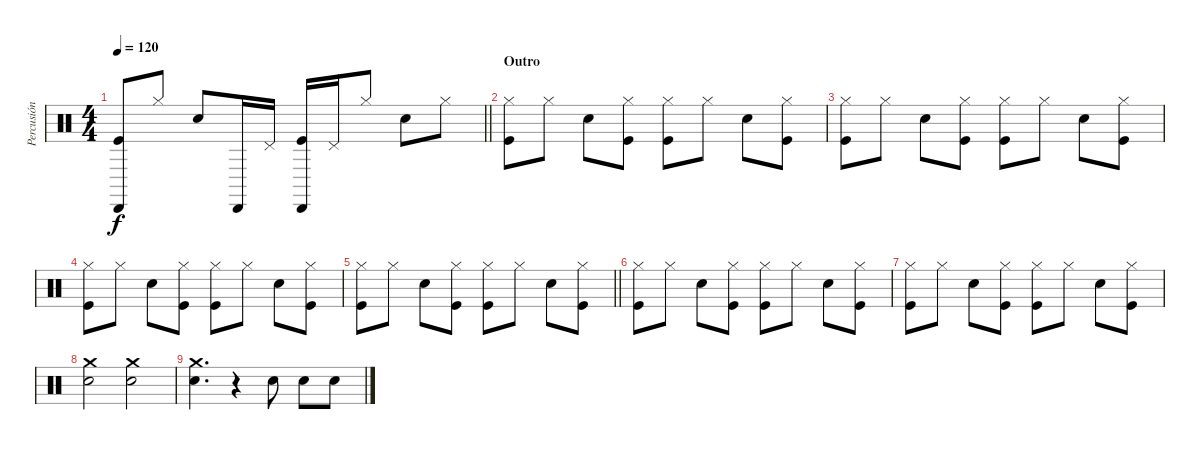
\track ("Percusión" "Percusión") {instrument percussion}
\staff {score}
\articulation defaults
\ts (4 4)
\tempo 120
\clef neutral
\barLineRight lightlight
\ks c
("Kick (hit)" "Cabasa (hit)").8{dy f} "Hi-Hat (closed)".8 "Electric Snare (hit)".8 "Cabasa (hit)".16 "Pedal Hi-Hat (hit)".16 ("Kick (hit)" "Cabasa (hit)").16 "Pedal Hi-Hat (hit)".16 "Hi-Hat (closed)".8 "Electric Snare (hit)".8 "Hi-Hat (closed)".8 |
\section ("" "Outro")
("Kick (hit)" "Hi-Hat (closed)").8 "Hi-Hat (closed)".8 "Electric Snare (hit)".8 ("Kick (hit)" "Hi-Hat (closed)").8 ("Kick (hit)" "Hi-Hat (closed)").8 "Hi-Hat (closed)".8 "Electric Snare (hit)".8 ("Kick (hit)" "Hi-Hat (closed)").8 |
("Kick (hit)" "Hi-Hat (closed)").8 "Hi-Hat (closed)".8 "Electric Snare (hit)".8 ("Kick (hit)" "Hi-Hat (closed)").8 ("Kick (hit)" "Hi-Hat (closed)").8 "Hi-Hat (closed)".8 "Electric Snare (hit)".8 ("Kick (hit)" "Hi-Hat (closed)").8 |
("Kick (hit)" "Hi-Hat (closed)").8 "Hi-Hat (closed)".8 "Electric Snare (hit)".8 ("Kick (hit)" "Hi-Hat (closed)").8 ("Kick (hit)" "Hi-Hat (closed)").8 "Hi-Hat (closed)".8 "Electric Snare (hit)".8 ("Kick (hit)" "Hi-Hat (closed)").8 |
\barLineRight lightlight
("Kick (hit)" "Hi-Hat (closed)").8 "Hi-Hat (closed)".8 "Electric Snare (hit)".8 ("Kick (hit)" "Hi-Hat (closed)").8 ("Kick (hit)" "Hi-Hat (closed)").8 "Hi-Hat (closed)".8 "Electric Snare (hit)".8 ("Kick (hit)" "Hi-Hat (closed)").8 |
("Kick (hit)" "Hi-Hat (closed)").8 "Hi-Hat (closed)".8 "Electric Snare (hit)".8 ("Kick (hit)" "Hi-Hat (closed)").8 ("Kick (hit)" "Hi-Hat (closed)").8 "Hi-Hat (closed)".8 "Electric Snare (hit)".8 ("Kick (hit)" "Hi-Hat (closed)").8 |
("Kick (hit)" "Hi-Hat (closed)").8 "Hi-Hat (closed)".8 "Electric Snare (hit)".8 ("Kick (hit)" "Hi-Hat (closed)").8 ("Kick (hit)" "Hi-Hat (closed)").8 "Hi-Hat (closed)".8 "Electric Snare (hit)".8 ("Kick (hit)" "Hi-Hat (closed)").8 |
("Crash medium (hit)" "Electric Snare (hit)").2 ("Crash medium (hit)" "Electric Snare (hit)").2 |
("Crash medium (hit)" "Electric Snare (hit)").4{d} r.4 "Electric Snare (hit)".8 "Snare (hit) 2".8 "Electric Snare (hit)".8
